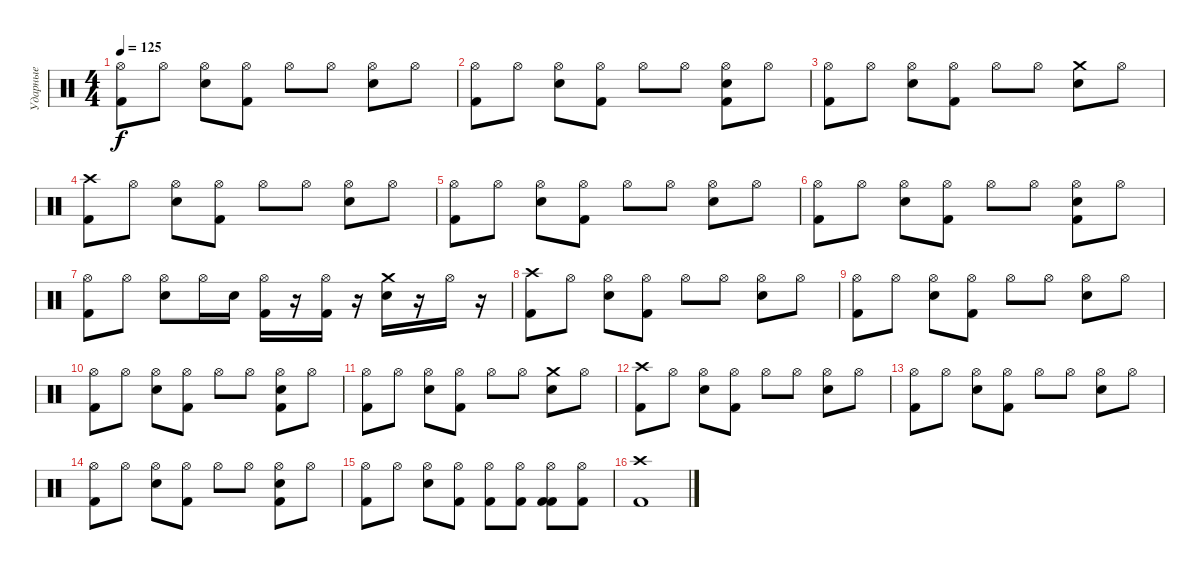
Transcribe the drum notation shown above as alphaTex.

\track ("Ударные" "Ударные") {instrument percussion}
\staff {score}
\articulation defaults
\ts (4 4)
\tempo 125
\clef neutral
\ks c
("Hi-Hat (open)" "Kick (hit) 2").8{dy f} "Hi-Hat (open)".8 ("Hi-Hat (open)" "Snare (hit) 2").8 ("Hi-Hat (open)" "Kick (hit) 2").8 "Hi-Hat (open)".8 "Hi-Hat (open)".8 ("Hi-Hat (open)" "Snare (hit) 2").8 "Hi-Hat (open)".8 |
("Hi-Hat (open)" "Kick (hit) 2").8 "Hi-Hat (open)".8 ("Hi-Hat (open)" "Snare (hit) 2").8 ("Hi-Hat (open)" "Kick (hit) 2").8 "Hi-Hat (open)".8 "Hi-Hat (open)".8 ("Hi-Hat (open)" "Snare (hit) 2" "Kick (hit) 2").8 "Hi-Hat (open)".8 |
("Hi-Hat (open)" "Kick (hit) 2").8 "Hi-Hat (open)".8 ("Hi-Hat (open)" "Snare (hit) 2").8 ("Hi-Hat (open)" "Kick (hit) 2").8 "Hi-Hat (open)".8 "Hi-Hat (open)".8 ("Crash medium (hit)" "Snare (hit) 2").8 "Hi-Hat (open)".8 |
("Crash high (hit)" "Kick (hit) 2").8 "Hi-Hat (open)".8 ("Hi-Hat (open)" "Snare (hit) 2").8 ("Hi-Hat (open)" "Kick (hit) 2").8 "Hi-Hat (open)".8 "Hi-Hat (open)".8 ("Hi-Hat (open)" "Snare (hit) 2").8 "Hi-Hat (open)".8 |
("Hi-Hat (open)" "Kick (hit) 2").8 "Hi-Hat (open)".8 ("Hi-Hat (open)" "Snare (hit) 2").8 ("Hi-Hat (open)" "Kick (hit) 2").8 "Hi-Hat (open)".8 "Hi-Hat (open)".8 ("Hi-Hat (open)" "Snare (hit) 2").8 "Hi-Hat (open)".8 |
("Hi-Hat (open)" "Kick (hit) 2").8 "Hi-Hat (open)".8 ("Hi-Hat (open)" "Snare (hit) 2").8 ("Hi-Hat (open)" "Kick (hit) 2").8 "Hi-Hat (open)".8 "Hi-Hat (open)".8 ("Hi-Hat (open)" "Snare (hit) 2" "Kick (hit) 2").8 "Hi-Hat (open)".8 |
("Hi-Hat (open)" "Kick (hit) 2").8 "Hi-Hat (open)".8 ("Hi-Hat (open)" "Snare (hit) 2").8 "Hi-Hat (open)".16 "Snare (hit) 2".16 ("Hi-Hat (open)" "Kick (hit) 2").16 r.16 ("Hi-Hat (open)" "Kick (hit) 2").16 r.16 ("Crash medium (hit)" "Snare (hit) 2").16 r.16 "Hi-Hat (open)".16 r.16 |
("Crash high (hit)" "Kick (hit) 2").8 "Hi-Hat (open)".8 ("Hi-Hat (open)" "Snare (hit) 2").8 ("Hi-Hat (open)" "Kick (hit) 2").8 "Hi-Hat (open)".8 "Hi-Hat (open)".8 ("Hi-Hat (open)" "Snare (hit) 2").8 "Hi-Hat (open)".8 |
("Hi-Hat (open)" "Kick (hit) 2").8 "Hi-Hat (open)".8 ("Hi-Hat (open)" "Snare (hit) 2").8 ("Hi-Hat (open)" "Kick (hit) 2").8 "Hi-Hat (open)".8 "Hi-Hat (open)".8 ("Hi-Hat (open)" "Snare (hit) 2").8 "Hi-Hat (open)".8 |
("Hi-Hat (open)" "Kick (hit) 2").8 "Hi-Hat (open)".8 ("Hi-Hat (open)" "Snare (hit) 2").8 ("Hi-Hat (open)" "Kick (hit) 2").8 "Hi-Hat (open)".8 "Hi-Hat (open)".8 ("Hi-Hat (open)" "Snare (hit) 2" "Kick (hit) 2").8 "Hi-Hat (open)".8 |
("Hi-Hat (open)" "Kick (hit) 2").8 "Hi-Hat (open)".8 ("Hi-Hat (open)" "Snare (hit) 2").8 ("Hi-Hat (open)" "Kick (hit) 2").8 "Hi-Hat (open)".8 "Hi-Hat (open)".8 ("Crash medium (hit)" "Snare (hit) 2").8 "Hi-Hat (open)".8 |
("Crash high (hit)" "Kick (hit) 2").8 "Hi-Hat (open)".8 ("Hi-Hat (open)" "Snare (hit) 2").8 ("Hi-Hat (open)" "Kick (hit) 2").8 "Hi-Hat (open)".8 "Hi-Hat (open)".8 ("Hi-Hat (open)" "Snare (hit) 2").8 "Hi-Hat (open)".8 |
("Hi-Hat (open)" "Kick (hit) 2").8 "Hi-Hat (open)".8 ("Hi-Hat (open)" "Snare (hit) 2").8 ("Hi-Hat (open)" "Kick (hit) 2").8 "Hi-Hat (open)".8 "Hi-Hat (open)".8 ("Hi-Hat (open)" "Snare (hit) 2").8 "Hi-Hat (open)".8 |
("Hi-Hat (open)" "Kick (hit) 2").8 "Hi-Hat (open)".8 ("Hi-Hat (open)" "Snare (hit) 2").8 ("Hi-Hat (open)" "Kick (hit) 2").8 "Hi-Hat (open)".8 "Hi-Hat (open)".8 ("Hi-Hat (open)" "Snare (hit) 2" "Kick (hit) 2").8 "Hi-Hat (open)".8 |
("Hi-Hat (open)" "Kick (hit) 2").8 "Hi-Hat (open)".8 ("Hi-Hat (open)" "Snare (hit) 2").8 ("Hi-Hat (open)" "Kick (hit) 2").8 ("Hi-Hat (open)" "Kick (hit) 2").8 ("Hi-Hat (open)" "Kick (hit) 2").8 ("Hi-Hat (open)" "Kick (hit) 2" "Kick (hit) 2").8 ("Hi-Hat (open)" "Kick (hit) 2").8 |
("Crash high (hit)" "Kick (hit) 2").1
